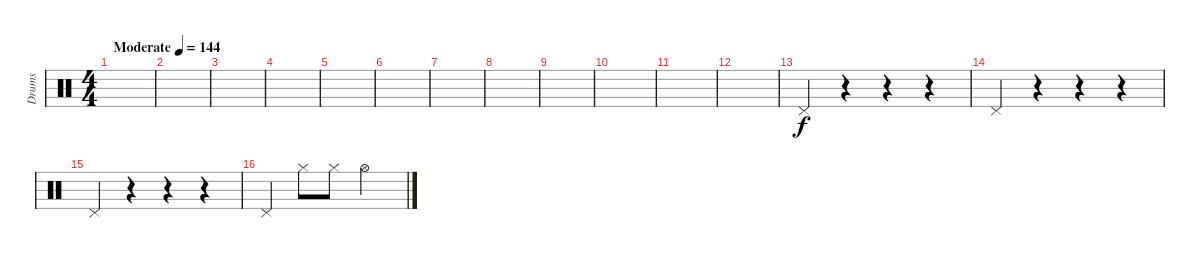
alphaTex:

\track ("Drums" "Drums") {instrument percussion}
\staff {score}
\articulation defaults
\ts (4 4)
\tempo (144 "Moderate")
\clef neutral
\ks c
|
|
|
|
|
|
|
|
|
|
|
|
"Pedal Hi-Hat (hit)".4 r.4 r.4 r.4 |
"Pedal Hi-Hat (hit)".4 r.4 r.4 r.4 |
"Pedal Hi-Hat (hit)".4 r.4 r.4 r.4 |
"Pedal Hi-Hat (hit)".4 "Hi-Hat (closed)".8 "Hi-Hat (closed)".8 "Hi-Hat (open)".2
